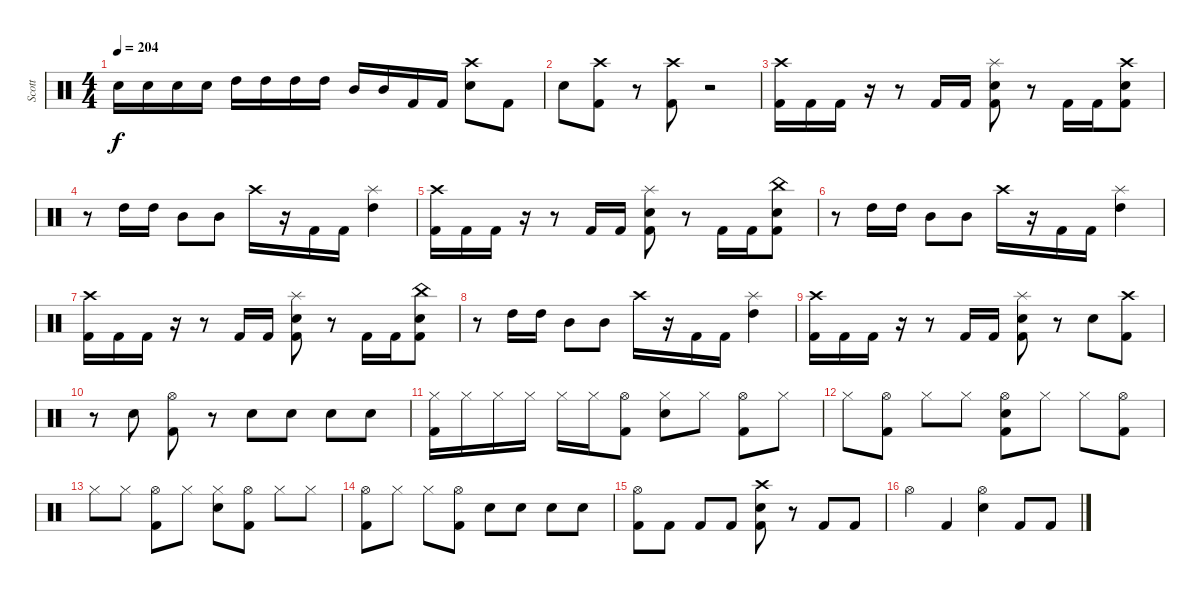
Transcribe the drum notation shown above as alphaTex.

\track ("Scott" "Scott") {instrument percussion}
\staff {score}
\articulation defaults
\ts (4 4)
\tempo 204
\clef neutral
\ks c "Snare (hit) 2".16{dy f} "Snare (hit) 2".16 "Snare (hit) 2".16 "Snare (hit) 2".16 "High Tom (hit)".16 "High Tom (hit)".16 "High Tom (hit)".16 "High Tom (hit)".16 "Mid Tom (hit)".16 "Mid Tom (hit)".16 "Kick (hit) 2".16 "Kick (hit) 2".16
("Crash high (hit)" "Snare (hit) 2").8 "Kick (hit) 2".8 |
"Snare (hit) 2".8 ("Crash high (hit)" "Kick (hit) 2").8 r.8 ("Crash high (hit)" "Kick (hit) 2").8 r.2 |
("Crash high (hit)" "Kick (hit) 2").16 "Kick (hit) 2".16 "Kick (hit) 2".16 r.16 r.8 "Kick (hit) 2".16 "Kick (hit) 2".16 ("Splash (hit)" "Snare (hit) 2" "Kick (hit) 2").8 r.8 "Kick (hit) 2".16 "Kick (hit) 2".16 ("Crash high (hit)" "Snare (hit) 2" "Kick (hit) 2").8 |
r.8 "High Tom (hit)".16 "High Tom (hit)".16 "Mid Tom (hit)".8 "Mid Tom (hit)".8 "Crash high (hit)".16 r.16 "Kick (hit) 2".16 "Kick (hit) 2".16 ("Splash (hit)" "High Tom (hit)").4 |
("Crash high (hit)" "Kick (hit) 2").16 "Kick (hit) 2".16 "Kick (hit) 2".16 r.16 r.8 "Kick (hit) 2".16 "Kick (hit) 2".16 ("Splash (hit)" "Snare (hit) 2" "Kick (hit) 2").8 r.8 "Kick (hit) 2".16 "Kick (hit) 2".16 ("China (hit)" "Snare (hit) 2" "Kick (hit) 2").8 |
r.8 "High Tom (hit)".16 "High Tom (hit)".16 "Mid Tom (hit)".8 "Mid Tom (hit)".8 "Crash high (hit)".16 r.16 "Kick (hit) 2".16 "Kick (hit) 2".16 ("Splash (hit)" "High Tom (hit)").4 |
("Crash high (hit)" "Kick (hit) 2").16 "Kick (hit) 2".16 "Kick (hit) 2".16 r.16 r.8 "Kick (hit) 2".16 "Kick (hit) 2".16 ("Splash (hit)" "Snare (hit) 2" "Kick (hit) 2").8 r.8 "Kick (hit) 2".16 "Kick (hit) 2".16 ("China (hit)" "Snare (hit) 2" "Kick (hit) 2").8 |
r.8 "High Tom (hit)".16 "High Tom (hit)".16 "Mid Tom (hit)".8 "Mid Tom (hit)".8 "Crash high (hit)".16 r.16 "Kick (hit) 2".16 "Kick (hit) 2".16 ("Splash (hit)" "High Tom (hit)").4 |
("Crash high (hit)" "Kick (hit) 2").16 "Kick (hit) 2".16 "Kick (hit) 2".16 r.16 r.8 "Kick (hit) 2".16 "Kick (hit) 2".16 ("Splash (hit)" "Snare (hit) 2" "Kick (hit) 2").8 r.8 "Snare (hit) 2".8 ("Crash high (hit)" "Kick (hit) 2").8 |
r.8 "Snare (hit) 2".8 ("Hi-Hat (open)" "Kick (hit) 2").8 r.8 "Snare (hit) 2".8 "Snare (hit) 2".8 "Snare (hit) 2".8 "Snare (hit) 2".8 |
("Hi-Hat (closed)" "Kick (hit) 2").16 "Hi-Hat (closed)".16 "Hi-Hat (closed)".16 "Hi-Hat (closed)".16 "Hi-Hat (closed)".16 "Hi-Hat (closed)".16 ("Hi-Hat (open)" "Kick (hit) 2").8 ("Hi-Hat (closed)" "Snare (hit) 2").8 "Hi-Hat (closed)".8 ("Hi-Hat (open)" "Kick (hit) 2").8 "Hi-Hat (closed)".8 |
"Hi-Hat (closed)".8 ("Hi-Hat (open)" "Kick (hit) 2").8 "Hi-Hat (closed)".8 "Hi-Hat (closed)".8 ("Hi-Hat (open)" "Snare (hit) 2" "Kick (hit) 2").8 "Hi-Hat (closed)".8 "Hi-Hat (closed)".8 ("Hi-Hat (open)" "Kick (hit) 2").8 |
"Hi-Hat (closed)".8 "Hi-Hat (closed)".8 ("Hi-Hat (open)" "Kick (hit) 2").8 "Hi-Hat (closed)".8 ("Hi-Hat (closed)" "Snare (hit) 2").8 ("Hi-Hat (open)" "Kick (hit) 2").8 "Hi-Hat (closed)".8 "Hi-Hat (closed)".8 |
("Hi-Hat (open)" "Kick (hit) 2").8 "Hi-Hat (closed)".8 "Hi-Hat (closed)".8 ("Hi-Hat (open)" "Kick (hit) 2").8 "Snare (hit) 2".8 "Snare (hit) 2".8 "Snare (hit) 2".8 "Snare (hit) 2".8 |
("Hi-Hat (open)" "Kick (hit) 2").8 "Kick (hit) 2".8 "Kick (hit) 2".8 "Kick (hit) 2".8 ("Crash high (hit)" "Snare (hit) 2" "Kick (hit) 2").8 r.8 "Kick (hit) 2".8 "Kick (hit) 2".8 |
"Hi-Hat (open)".4 "Kick (hit) 2".4 ("Hi-Hat (open)" "Snare (hit) 2").4 "Kick (hit) 2".8 "Kick (hit) 2".8
